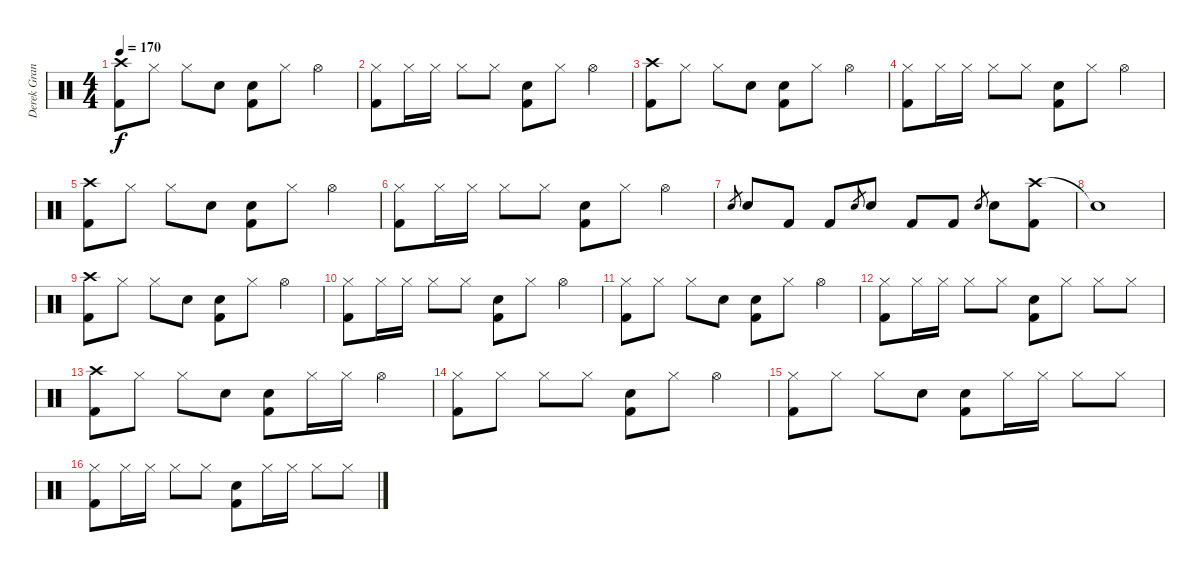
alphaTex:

\track ("Derek Grant" "Derek Gran") {instrument percussion}
\staff {score}
\articulation defaults
\ts (4 4)
\tempo 170
\clef neutral
\ks c
("Crash high (hit)" "Kick (hit) 2").8{dy f} "Hi-Hat (closed)".8 "Hi-Hat (closed)".8 "Snare (hit) 2".8 ("Snare (hit) 2" "Kick (hit) 2").8 "Hi-Hat (closed)".8 "Hi-Hat (open)".4 |
("Hi-Hat (closed)" "Kick (hit) 2").8 "Hi-Hat (closed)".16 "Hi-Hat (closed)".16 "Hi-Hat (closed)".8 "Hi-Hat (closed)".8 ("Snare (hit) 2" "Kick (hit) 2").8 "Hi-Hat (closed)".8 "Hi-Hat (open)".4 |
("Crash high (hit)" "Kick (hit) 2").8 "Hi-Hat (closed)".8 "Hi-Hat (closed)".8 "Snare (hit) 2".8 ("Snare (hit) 2" "Kick (hit) 2").8 "Hi-Hat (closed)".8 "Hi-Hat (open)".4 |
("Hi-Hat (closed)" "Kick (hit) 2").8 "Hi-Hat (closed)".16 "Hi-Hat (closed)".16 "Hi-Hat (closed)".8 "Hi-Hat (closed)".8 ("Snare (hit) 2" "Kick (hit) 2").8 "Hi-Hat (closed)".8 "Hi-Hat (open)".4 |
("Crash high (hit)" "Kick (hit) 2").8 "Hi-Hat (closed)".8 "Hi-Hat (closed)".8 "Snare (hit) 2".8 ("Snare (hit) 2" "Kick (hit) 2").8 "Hi-Hat (closed)".8 "Hi-Hat (open)".4 |
("Hi-Hat (closed)" "Kick (hit) 2").8 "Hi-Hat (closed)".16 "Hi-Hat (closed)".16 "Hi-Hat (closed)".8 "Hi-Hat (closed)".8 ("Snare (hit) 2" "Kick (hit) 2").8 "Hi-Hat (closed)".8 "Hi-Hat (open)".4 |
"Snare (hit) 2".8{gr} "Snare (hit) 2".8 "Kick (hit) 2".8 "Kick (hit) 2".8 "Snare (hit) 2".8{gr} "Snare (hit) 2".8 "Kick (hit) 2".8 "Kick (hit) 2".8 "Snare (hit) 2".8{gr} "Snare (hit) 2".8 ("Crash high (hit)" "Kick (hit) 2").8 |
"Snare (hit)"{t}.1 |
("Crash high (hit)" "Kick (hit) 2").8 "Hi-Hat (closed)".8 "Hi-Hat (closed)".8 "Snare (hit) 2".8 ("Snare (hit) 2" "Kick (hit) 2").8 "Hi-Hat (closed)".8 "Hi-Hat (open)".4 |
("Hi-Hat (closed)" "Kick (hit) 2").8 "Hi-Hat (closed)".16 "Hi-Hat (closed)".16 "Hi-Hat (closed)".8 "Hi-Hat (closed)".8 ("Snare (hit) 2" "Kick (hit) 2").8 "Hi-Hat (closed)".8 "Hi-Hat (open)".4 |
("Hi-Hat (closed)" "Kick (hit) 2").8 "Hi-Hat (closed)".8 "Hi-Hat (closed)".8 "Snare (hit) 2".8 ("Snare (hit) 2" "Kick (hit) 2").8 "Hi-Hat (closed)".8 "Hi-Hat (open)".4 |
("Hi-Hat (closed)" "Kick (hit) 2").8 "Hi-Hat (closed)".16 "Hi-Hat (closed)".16 "Hi-Hat (closed)".8 "Hi-Hat (closed)".8 ("Snare (hit) 2" "Kick (hit) 2").8 "Hi-Hat (closed)".8 "Hi-Hat (closed)".8 "Hi-Hat (closed)".8 |
("Crash high (hit)" "Kick (hit) 2").8 "Hi-Hat (closed)".8 "Hi-Hat (closed)".8 "Snare (hit) 2".8 ("Snare (hit) 2" "Kick (hit) 2").8 "Hi-Hat (closed)".16 "Hi-Hat (closed)".16 "Hi-Hat (open)".4 |
("Hi-Hat (closed)" "Kick (hit) 2").8 "Hi-Hat (closed)".8 "Hi-Hat (closed)".8 "Hi-Hat (closed)".8 ("Snare (hit) 2" "Kick (hit) 2").8 "Hi-Hat (closed)".8 "Hi-Hat (open)".4 |
("Hi-Hat (closed)" "Kick (hit) 2").8 "Hi-Hat (closed)".8 "Hi-Hat (closed)".8 "Snare (hit) 2".8 ("Snare (hit) 2" "Kick (hit) 2").8 "Hi-Hat (closed)".16 "Hi-Hat (closed)".16 "Hi-Hat (closed)".8 "Hi-Hat (closed)".8 |
("Hi-Hat (closed)" "Kick (hit) 2").8 "Hi-Hat (closed)".16 "Hi-Hat (closed)".16 "Hi-Hat (closed)".8 "Hi-Hat (closed)".8 ("Snare (hit) 2" "Kick (hit) 2").8 "Hi-Hat (closed)".16 "Hi-Hat (closed)".16 "Hi-Hat (closed)".8 "Hi-Hat (closed)".8
